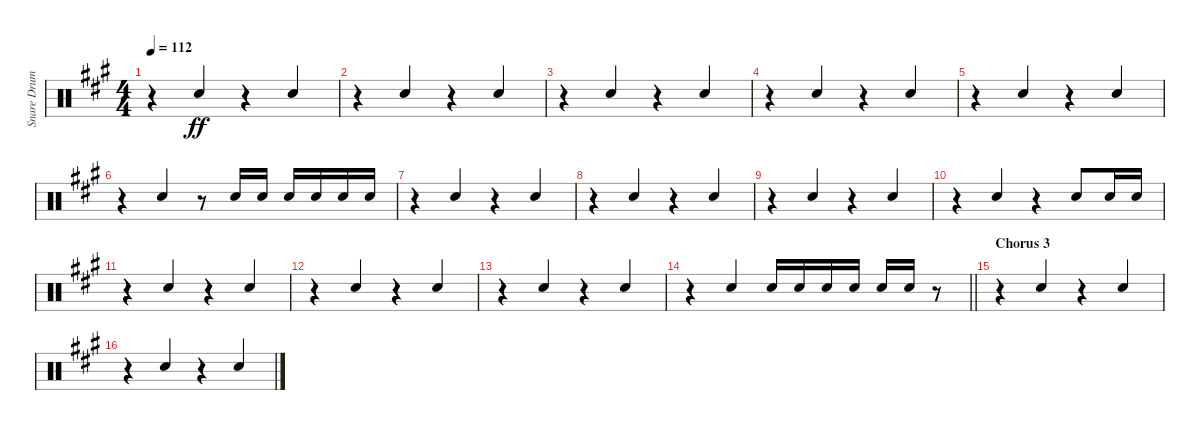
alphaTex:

\track ("Snare Drum" "Snare Drum") {instrument percussion}
\staff {score}
\articulation defaults
\ts (4 4)
\tempo 112
\clef neutral
\ks f#minor
r.4{dy ff} "Electric Snare (hit)".4{beam Up} r.4 "Electric Snare (hit)".4{beam Up} |
r.4 "Electric Snare (hit)".4{beam Up} r.4 "Electric Snare (hit)".4{beam Up} |
r.4 "Electric Snare (hit)".4{beam Up} r.4 "Electric Snare (hit)".4{beam Up} |
r.4 "Electric Snare (hit)".4{beam Up} r.4 "Electric Snare (hit)".4{beam Up} |
r.4 "Electric Snare (hit)".4{beam Up} r.4 "Electric Snare (hit)".4{beam Up} |
r.4 "Electric Snare (hit)".4{beam Up} r.8 "Electric Snare (hit)".16{beam Up} "Electric Snare (hit)".16{beam Up} "Electric Snare (hit)".16{beam Up} "Electric Snare (hit)".16{beam Up} "Electric Snare (hit)".16{beam Up} "Electric Snare (hit)".16{beam Up} |
r.4 "Electric Snare (hit)".4{beam Up} r.4 "Electric Snare (hit)".4{beam Up} |
r.4 "Electric Snare (hit)".4{beam Up} r.4 "Electric Snare (hit)".4{beam Up} |
r.4 "Electric Snare (hit)".4{beam Up} r.4 "Electric Snare (hit)".4{beam Up} |
r.4 "Electric Snare (hit)".4{beam Up} r.4 "Electric Snare (hit)".8{beam Up} "Electric Snare (hit)".16{beam Up} "Electric Snare (hit)".16{beam Up} |
r.4 "Electric Snare (hit)".4{beam Up} r.4 "Electric Snare (hit)".4{beam Up} |
r.4 "Electric Snare (hit)".4{beam Up} r.4 "Electric Snare (hit)".4{beam Up} |
r.4 "Electric Snare (hit)".4{beam Up} r.4 "Electric Snare (hit)".4{beam Up} |
\barLineRight lightlight
r.4{beam merge} "Electric Snare (hit)".4{beam Up} "Electric Snare (hit)".16{beam Up} "Electric Snare (hit)".16{beam Up} "Electric Snare (hit)".16{beam Up} "Electric Snare (hit)".16{beam Up} "Electric Snare (hit)".16{beam Up} "Electric Snare (hit)".16{beam Up} r.8 |
\section ("" "Chorus 3")
r.4 "Electric Snare (hit)".4{beam Up} r.4 "Electric Snare (hit)".4{beam Up} |
r.4 "Electric Snare (hit)".4{beam Up} r.4 "Electric Snare (hit)".4{beam Up}
